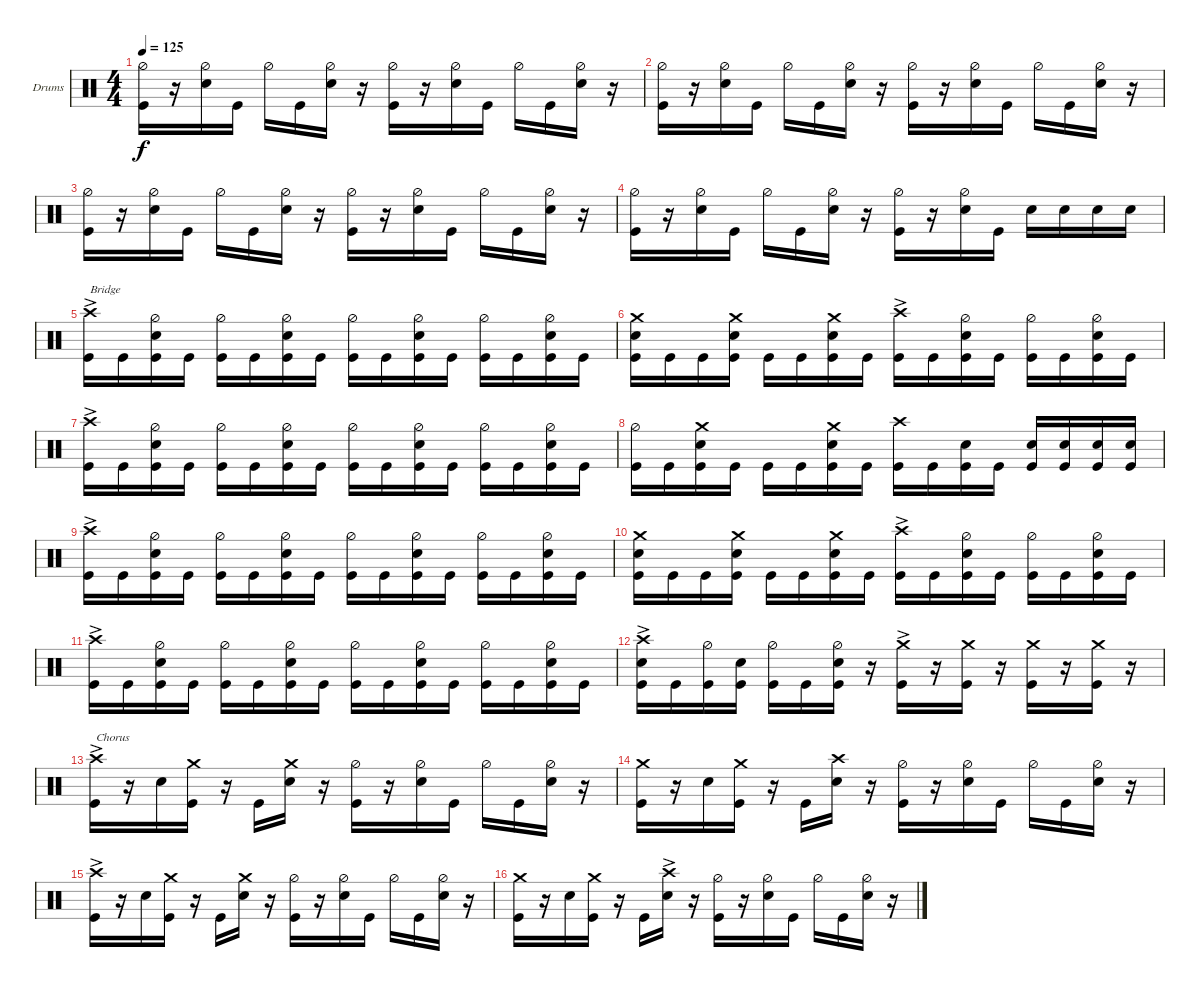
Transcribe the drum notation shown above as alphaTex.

\defaultSystemsLayout 4
\bracketExtendMode groupsimilarinstruments
\firstSystemTrackNameOrientation horizontal
\otherSystemsTrackNameOrientation horizontal
\track ("Lorenzo Milani" "Drums") {instrument percussion}
\staff {score}
\articulation defaults
\ts (4 4)
\tempo 125
\clef neutral
\ks c
("Kick (hit)" "Hi-Hat (half)").16{dy f} r.16 ("Snare (hit) 2" "Hi-Hat (half)").16 "Kick (hit)".16 "Hi-Hat (half)".16 "Kick (hit)".16 ("Snare (hit) 2" "Hi-Hat (half)").16 r.16 ("Kick (hit)" "Hi-Hat (half)").16 r.16 ("Snare (hit) 2" "Hi-Hat (half)").16 "Kick (hit)".16 "Hi-Hat (half)".16 "Kick (hit)".16 ("Snare (hit) 2" "Hi-Hat (half)").16 r.16 |
("Kick (hit)" "Hi-Hat (half)").16 r.16 ("Snare (hit) 2" "Hi-Hat (half)").16 "Kick (hit)".16 "Hi-Hat (half)".16 "Kick (hit)".16 ("Snare (hit) 2" "Hi-Hat (half)").16 r.16 ("Kick (hit)" "Hi-Hat (half)").16 r.16 ("Snare (hit) 2" "Hi-Hat (half)").16 "Kick (hit)".16 "Hi-Hat (half)".16 "Kick (hit)".16 ("Snare (hit) 2" "Hi-Hat (half)").16 r.16 |
("Kick (hit)" "Hi-Hat (half)").16 r.16 ("Snare (hit) 2" "Hi-Hat (half)").16 "Kick (hit)".16 "Hi-Hat (half)".16 "Kick (hit)".16 ("Snare (hit) 2" "Hi-Hat (half)").16 r.16 ("Kick (hit)" "Hi-Hat (half)").16 r.16 ("Snare (hit) 2" "Hi-Hat (half)").16 "Kick (hit)".16 "Hi-Hat (half)".16 "Kick (hit)".16 ("Snare (hit) 2" "Hi-Hat (half)").16 r.16 |
("Kick (hit)" "Hi-Hat (half)").16 r.16 ("Snare (hit) 2" "Hi-Hat (half)").16 "Kick (hit)".16 "Hi-Hat (half)".16 "Kick (hit)".16 ("Snare (hit) 2" "Hi-Hat (half)").16 r.16 ("Kick (hit)" "Hi-Hat (half)").16 r.16 ("Snare (hit) 2" "Hi-Hat (half)").16 "Kick (hit)".16 "Snare (hit) 2".16 "Snare (hit) 2".16 "Snare (hit) 2".16 "Snare (hit) 2".16 |
("Kick (hit)"{ac} "Crash high (hit)"{ac}).16{txt "Bridge"} "Kick (hit)".16 ("Kick (hit)" "Snare (hit) 2" "Hi-Hat (half)").16 "Kick (hit)".16 ("Kick (hit)" "Hi-Hat (half)").16 "Kick (hit)".16 ("Kick (hit)" "Snare (hit) 2" "Hi-Hat (half)").16 "Kick (hit)".16 ("Kick (hit)" "Hi-Hat (half)").16 "Kick (hit)".16 ("Kick (hit)" "Snare (hit) 2" "Hi-Hat (half)").16 "Kick (hit)".16 ("Kick (hit)" "Hi-Hat (half)").16 "Kick (hit)".16 ("Kick (hit)" "Snare (hit) 2" "Hi-Hat (half)").16 "Kick (hit)".16 |
("Kick (hit)" "Crash medium (hit)" "Snare (hit) 2").16 "Kick (hit)".16 "Kick (hit)".16 ("Kick (hit)" "Crash medium (hit)" "Snare (hit) 2").16 "Kick (hit)".16 "Kick (hit)".16 ("Kick (hit)" "Crash medium (hit)" "Snare (hit) 2").16 "Kick (hit)".16 ("Kick (hit)"{ac} "Crash high (hit)"{ac}).16 "Kick (hit)".16 ("Kick (hit)" "Snare (hit) 2" "Hi-Hat (half)").16 "Kick (hit)".16 ("Kick (hit)" "Hi-Hat (half)").16 "Kick (hit)".16 ("Kick (hit)" "Snare (hit) 2" "Hi-Hat (half)").16 "Kick (hit)".16 |
("Kick (hit)"{ac} "Crash high (hit)"{ac}).16 "Kick (hit)".16 ("Kick (hit)" "Snare (hit) 2" "Hi-Hat (half)").16 "Kick (hit)".16 ("Kick (hit)" "Hi-Hat (half)").16 "Kick (hit)".16 ("Kick (hit)" "Snare (hit) 2" "Hi-Hat (half)").16 "Kick (hit)".16 ("Kick (hit)" "Hi-Hat (half)").16 "Kick (hit)".16 ("Kick (hit)" "Snare (hit) 2" "Hi-Hat (half)").16 "Kick (hit)".16 ("Kick (hit)" "Hi-Hat (half)").16 "Kick (hit)".16 ("Kick (hit)" "Snare (hit) 2" "Hi-Hat (half)").16 "Kick (hit)".16 |
("Kick (hit)" "Hi-Hat (half)").16 "Kick (hit)".16 ("Kick (hit)" "Snare (hit) 2" "Crash medium (hit)").16 "Kick (hit)".16 "Kick (hit)".16 "Kick (hit)".16 ("Kick (hit)" "Snare (hit) 2" "Crash medium (hit)").16 "Kick (hit)".16 ("Kick (hit)" "Crash high (hit)").16 "Kick (hit)".16 ("Kick (hit)" "Snare (hit) 2").16 "Kick (hit)".16 ("Kick (hit)" "Snare (hit) 2").16 ("Kick (hit)" "Snare (hit) 2").16 ("Kick (hit)" "Snare (hit) 2").16 ("Kick (hit)" "Snare (hit) 2").16 |
("Kick (hit)"{ac} "Crash high (hit)"{ac}).16 "Kick (hit)".16 ("Kick (hit)" "Snare (hit) 2" "Hi-Hat (half)").16 "Kick (hit)".16 ("Kick (hit)" "Hi-Hat (half)").16 "Kick (hit)".16 ("Kick (hit)" "Snare (hit) 2" "Hi-Hat (half)").16 "Kick (hit)".16 ("Kick (hit)" "Hi-Hat (half)").16 "Kick (hit)".16 ("Kick (hit)" "Snare (hit) 2" "Hi-Hat (half)").16 "Kick (hit)".16 ("Kick (hit)" "Hi-Hat (half)").16 "Kick (hit)".16 ("Kick (hit)" "Snare (hit) 2" "Hi-Hat (half)").16 "Kick (hit)".16 |
("Kick (hit)" "Crash medium (hit)" "Snare (hit) 2").16 "Kick (hit)".16 "Kick (hit)".16 ("Kick (hit)" "Crash medium (hit)" "Snare (hit) 2").16 "Kick (hit)".16 "Kick (hit)".16 ("Kick (hit)" "Crash medium (hit)" "Snare (hit) 2").16 "Kick (hit)".16 ("Kick (hit)"{ac} "Crash high (hit)"{ac}).16 "Kick (hit)".16 ("Kick (hit)" "Snare (hit) 2" "Hi-Hat (half)").16 "Kick (hit)".16 ("Kick (hit)" "Hi-Hat (half)").16 "Kick (hit)".16 ("Kick (hit)" "Snare (hit) 2" "Hi-Hat (half)").16 "Kick (hit)".16 |
("Kick (hit)"{ac} "Crash high (hit)"{ac}).16 "Kick (hit)".16 ("Kick (hit)" "Snare (hit) 2" "Hi-Hat (half)").16 "Kick (hit)".16 ("Kick (hit)" "Hi-Hat (half)").16 "Kick (hit)".16 ("Kick (hit)" "Snare (hit) 2" "Hi-Hat (half)").16 "Kick (hit)".16 ("Kick (hit)" "Hi-Hat (half)").16 "Kick (hit)".16 ("Kick (hit)" "Snare (hit) 2" "Hi-Hat (half)").16 "Kick (hit)".16 ("Kick (hit)" "Hi-Hat (half)").16 "Kick (hit)".16 ("Kick (hit)" "Snare (hit) 2" "Hi-Hat (half)").16 "Kick (hit)".16 |
("Crash high (hit)"{ac} "Snare (hit) 2" "Kick (hit)").16 "Kick (hit)".16 ("Kick (hit)" "Hi-Hat (half)").16 ("Snare (hit) 2" "Kick (hit)").16 ("Kick (hit)" "Hi-Hat (half)").16 "Kick (hit)".16 ("Snare (hit) 2" "Hi-Hat (half)" "Kick (hit)").16 r.16 ("Kick (hit)"{ac} "Crash medium (hit)"{ac}).16 r.16 ("Kick (hit)" "Crash medium (hit)").16 r.16 ("Kick (hit)" "Crash medium (hit)").16 r.16 ("Kick (hit)" "Crash medium (hit)").16 r.16 |
("Kick (hit)"{ac} "Crash high (hit)"{ac}).16{txt "Chorus"} r.16 "Snare (hit) 2".16 ("Kick (hit)" "Crash medium (hit)").16 r.16 "Kick (hit)".16 ("Snare (hit) 2" "Crash medium (hit)").16 r.16 ("Kick (hit)" "Hi-Hat (half)").16 r.16 ("Snare (hit) 2" "Hi-Hat (half)").16 "Kick (hit)".16 "Hi-Hat (half)".16 "Kick (hit)".16 ("Snare (hit) 2" "Hi-Hat (half)").16 r.16 |
("Kick (hit)" "Crash medium (hit)").16 r.16 "Snare (hit) 2".16 ("Kick (hit)" "Crash medium (hit)").16 r.16 "Kick (hit)".16 ("Snare (hit) 2" "Crash high (hit)").16 r.16 ("Kick (hit)" "Hi-Hat (half)").16 r.16 ("Snare (hit) 2" "Hi-Hat (half)").16 "Kick (hit)".16 "Hi-Hat (half)".16 "Kick (hit)".16 ("Snare (hit) 2" "Hi-Hat (half)").16 r.16 |
("Kick (hit)"{ac} "Crash high (hit)"{ac}).16 r.16 "Snare (hit) 2".16 ("Kick (hit)" "Crash medium (hit)").16 r.16 "Kick (hit)".16 ("Snare (hit) 2" "Crash medium (hit)").16 r.16 ("Kick (hit)" "Hi-Hat (half)").16 r.16 ("Snare (hit) 2" "Hi-Hat (half)").16 "Kick (hit)".16 "Hi-Hat (half)".16 "Kick (hit)".16 ("Snare (hit) 2" "Hi-Hat (half)").16 r.16 |
("Kick (hit)" "Crash medium (hit)").16 r.16 "Snare (hit) 2".16 ("Kick (hit)" "Crash medium (hit)").16 r.16 "Kick (hit)".16 ("Snare (hit) 2"{ac} "Crash high (hit)"{ac}).16 r.16 ("Kick (hit)" "Hi-Hat (half)").16 r.16 ("Snare (hit) 2" "Hi-Hat (half)").16 "Kick (hit)".16 "Hi-Hat (half)".16 "Kick (hit)".16 ("Snare (hit) 2" "Hi-Hat (half)").16 r.16
